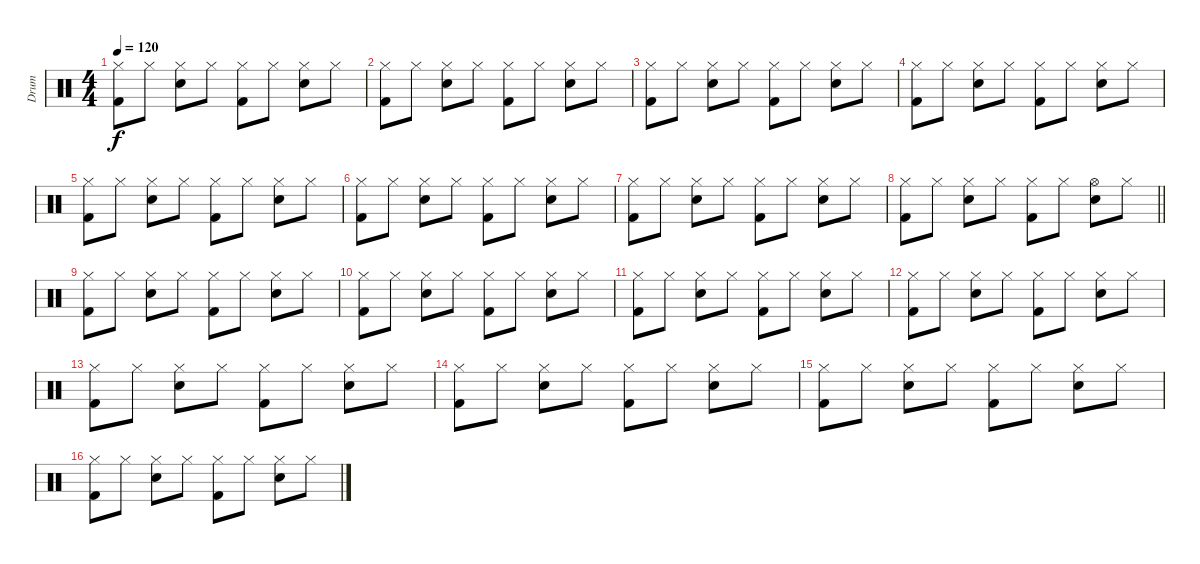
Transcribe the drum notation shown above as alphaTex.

\track ("Drum" "Drum") {instrument percussion}
\staff {score}
\articulation defaults
\ts (4 4)
\tempo 120
\clef neutral
\ks c
("Hi-Hat (closed)" "Kick (hit) 2").8{dy f} "Hi-Hat (closed)".8 ("Hi-Hat (closed)" "Snare (hit) 2").8 "Hi-Hat (closed)".8 ("Hi-Hat (closed)" "Kick (hit) 2").8 "Hi-Hat (closed)".8 ("Hi-Hat (closed)" "Snare (hit) 2").8 "Hi-Hat (closed)".8 |
("Hi-Hat (closed)" "Kick (hit) 2").8 "Hi-Hat (closed)".8 ("Hi-Hat (closed)" "Snare (hit) 2").8 "Hi-Hat (closed)".8 ("Hi-Hat (closed)" "Kick (hit) 2").8 "Hi-Hat (closed)".8{volume 13} ("Hi-Hat (closed)" "Snare (hit) 2").8 "Hi-Hat (closed)".8 |
("Hi-Hat (closed)" "Kick (hit) 2").8 "Hi-Hat (closed)".8 ("Hi-Hat (closed)" "Snare (hit) 2").8 "Hi-Hat (closed)".8 ("Hi-Hat (closed)" "Kick (hit) 2").8 "Hi-Hat (closed)".8 ("Hi-Hat (closed)" "Snare (hit) 2").8 "Hi-Hat (closed)".8 |
("Hi-Hat (closed)" "Kick (hit) 2").8 "Hi-Hat (closed)".8 ("Hi-Hat (closed)" "Snare (hit) 2").8 "Hi-Hat (closed)".8 ("Hi-Hat (closed)" "Kick (hit) 2").8 "Hi-Hat (closed)".8 ("Hi-Hat (closed)" "Snare (hit) 2").8 "Hi-Hat (closed)".8 |
("Hi-Hat (closed)" "Kick (hit) 2").8 "Hi-Hat (closed)".8 ("Hi-Hat (closed)" "Snare (hit) 2").8 "Hi-Hat (closed)".8 ("Hi-Hat (closed)" "Kick (hit) 2").8 "Hi-Hat (closed)".8 ("Hi-Hat (closed)" "Snare (hit) 2").8 "Hi-Hat (closed)".8 |
("Hi-Hat (closed)" "Kick (hit) 2").8 "Hi-Hat (closed)".8 ("Hi-Hat (closed)" "Snare (hit) 2").8 "Hi-Hat (closed)".8 ("Hi-Hat (closed)" "Kick (hit) 2").8 "Hi-Hat (closed)".8 ("Hi-Hat (closed)" "Snare (hit) 2").8 "Hi-Hat (closed)".8 |
("Hi-Hat (closed)" "Kick (hit) 2").8 "Hi-Hat (closed)".8 ("Hi-Hat (closed)" "Snare (hit) 2").8 "Hi-Hat (closed)".8 ("Hi-Hat (closed)" "Kick (hit) 2").8 "Hi-Hat (closed)".8 ("Hi-Hat (closed)" "Snare (hit) 2").8 "Hi-Hat (closed)".8 |
\barLineRight lightlight
("Hi-Hat (closed)" "Kick (hit) 2").8 "Hi-Hat (closed)".8 ("Hi-Hat (closed)" "Snare (hit) 2").8 "Hi-Hat (closed)".8 ("Hi-Hat (closed)" "Kick (hit) 2").8 "Hi-Hat (closed)".8 ("Hi-Hat (open)" "Snare (hit) 2").8 "Hi-Hat (closed)".8 |
\section ("" "")
("Hi-Hat (closed)" "Kick (hit) 2").8 "Hi-Hat (closed)".8 ("Hi-Hat (closed)" "Snare (hit) 2").8 "Hi-Hat (closed)".8 ("Hi-Hat (closed)" "Kick (hit) 2").8 "Hi-Hat (closed)".8 ("Hi-Hat (closed)" "Snare (hit) 2").8 "Hi-Hat (closed)".8 |
("Hi-Hat (closed)" "Kick (hit) 2").8 "Hi-Hat (closed)".8 ("Hi-Hat (closed)" "Snare (hit) 2").8 "Hi-Hat (closed)".8 ("Hi-Hat (closed)" "Kick (hit) 2").8 "Hi-Hat (closed)".8 ("Hi-Hat (closed)" "Snare (hit) 2").8 "Hi-Hat (closed)".8 |
("Hi-Hat (closed)" "Kick (hit) 2").8 "Hi-Hat (closed)".8 ("Hi-Hat (closed)" "Snare (hit) 2").8 "Hi-Hat (closed)".8 ("Hi-Hat (closed)" "Kick (hit) 2").8 "Hi-Hat (closed)".8 ("Hi-Hat (closed)" "Snare (hit) 2").8 "Hi-Hat (closed)".8 |
("Hi-Hat (closed)" "Kick (hit) 2").8 "Hi-Hat (closed)".8 ("Hi-Hat (closed)" "Snare (hit) 2").8 "Hi-Hat (closed)".8 ("Hi-Hat (closed)" "Kick (hit) 2").8 "Hi-Hat (closed)".8 ("Hi-Hat (closed)" "Snare (hit) 2").8 "Hi-Hat (closed)".8 |
("Hi-Hat (closed)" "Kick (hit) 2").8 "Hi-Hat (closed)".8 ("Hi-Hat (closed)" "Snare (hit) 2").8 "Hi-Hat (closed)".8 ("Hi-Hat (closed)" "Kick (hit) 2").8 "Hi-Hat (closed)".8 ("Hi-Hat (closed)" "Snare (hit) 2").8 "Hi-Hat (closed)".8 |
("Hi-Hat (closed)" "Kick (hit) 2").8 "Hi-Hat (closed)".8 ("Hi-Hat (closed)" "Snare (hit) 2").8 "Hi-Hat (closed)".8 ("Hi-Hat (closed)" "Kick (hit) 2").8 "Hi-Hat (closed)".8 ("Hi-Hat (closed)" "Snare (hit) 2").8 "Hi-Hat (closed)".8 |
("Hi-Hat (closed)" "Kick (hit) 2").8 "Hi-Hat (closed)".8 ("Hi-Hat (closed)" "Snare (hit) 2").8 "Hi-Hat (closed)".8 ("Hi-Hat (closed)" "Kick (hit) 2").8 "Hi-Hat (closed)".8 ("Hi-Hat (closed)" "Snare (hit) 2").8 "Hi-Hat (closed)".8 |
("Hi-Hat (closed)" "Kick (hit) 2").8 "Hi-Hat (closed)".8 ("Hi-Hat (closed)" "Snare (hit) 2").8 "Hi-Hat (closed)".8 ("Hi-Hat (closed)" "Kick (hit) 2").8 "Hi-Hat (closed)".8 ("Hi-Hat (closed)" "Snare (hit) 2").8 "Hi-Hat (closed)".8
